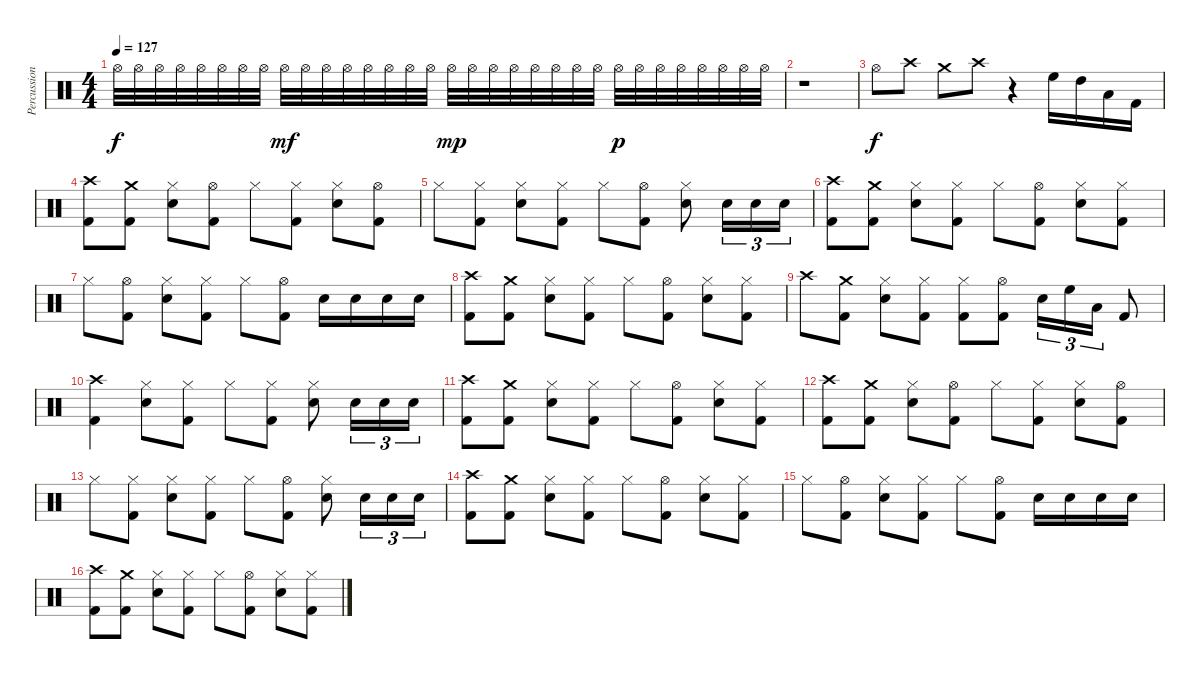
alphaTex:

\track ("Percussion" "Percussion") {instrument percussion}
\staff {score}
\articulation defaults
\ts (4 4)
\tempo 127
\clef neutral
\ks c "Hi-Hat (open)".32{dy f} "Hi-Hat (open)".32 "Hi-Hat (open)".32 "Hi-Hat (open)".32 "Hi-Hat (open)".32 "Hi-Hat (open)".32 "Hi-Hat (open)".32 "Hi-Hat (open)".32 "Hi-Hat (open)".32{dy mf} "Hi-Hat (open)".32 "Hi-Hat (open)".32 "Hi-Hat (open)".32 "Hi-Hat (open)".32 "Hi-Hat (open)".32 "Hi-Hat (open)".32 "Hi-Hat (open)".32 "Hi-Hat (open)".32{dy mp} "Hi-Hat (open)".32 "Hi-Hat (open)".32 "Hi-Hat (open)".32 "Hi-Hat (open)".32 "Hi-Hat (open)".32 "Hi-Hat (open)".32 "Hi-Hat (open)".32 "Hi-Hat (open)".32{dy p} "Hi-Hat (open)".32 "Hi-Hat (open)".32 "Hi-Hat (open)".32 "Hi-Hat (open)".32 "Hi-Hat (open)".32 "Hi-Hat (open)".32 "Hi-Hat (open)".32
|
r.1 |
"Hi-Hat (open)".8{dy f} "Crash high (hit)".8 "Crash medium (hit)".8 "Crash high (hit)".8 r.4 "High Floor Tom (hit)".16 "High Tom (hit)".16 "Low Tom (hit)".16 "Kick (hit) 2".16 |
("Kick (hit) 2" "Crash high (hit)").8 ("Kick (hit) 2" "Crash medium (hit)").8 ("Snare (hit) 2" "Hi-Hat (closed)").8 ("Kick (hit) 2" "Hi-Hat (open)").8 "Hi-Hat (closed)".8 ("Kick (hit) 2" "Hi-Hat (closed)").8 ("Snare (hit) 2" "Hi-Hat (closed)").8 ("Kick (hit) 2" "Hi-Hat (open)").8 |
"Hi-Hat (closed)".8 ("Kick (hit) 2" "Hi-Hat (closed)").8 ("Snare (hit) 2" "Hi-Hat (closed)").8 ("Kick (hit) 2" "Hi-Hat (closed)").8 "Hi-Hat (closed)".8 ("Kick (hit) 2" "Hi-Hat (open)").8 ("Snare (hit) 2" "Hi-Hat (closed)").8 "Snare (hit) 2".16{tu (3 2)} "Snare (hit) 2".16{tu (3 2)} "Snare (hit) 2".16{tu (3 2)} |
("Kick (hit) 2" "Crash high (hit)").8 ("Kick (hit) 2" "Crash medium (hit)").8 ("Snare (hit) 2" "Hi-Hat (closed)").8 ("Kick (hit) 2" "Hi-Hat (closed)").8 "Hi-Hat (closed)".8 ("Kick (hit) 2" "Hi-Hat (open)").8 ("Snare (hit) 2" "Hi-Hat (closed)").8 ("Kick (hit) 2" "Hi-Hat (closed)").8 |
"Hi-Hat (closed)".8 ("Kick (hit) 2" "Hi-Hat (open)").8 ("Snare (hit) 2" "Hi-Hat (closed)").8 ("Kick (hit) 2" "Hi-Hat (closed)").8 "Hi-Hat (closed)".8 ("Kick (hit) 2" "Hi-Hat (open)").8 "Snare (hit) 2".16 "Snare (hit) 2".16 "Snare (hit) 2".16 "Snare (hit) 2".16 |
("Kick (hit) 2" "Crash high (hit)").8 ("Kick (hit) 2" "Crash medium (hit)").8 ("Snare (hit) 2" "Hi-Hat (closed)").8 ("Kick (hit) 2" "Hi-Hat (closed)").8 "Hi-Hat (closed)".8 ("Kick (hit) 2" "Hi-Hat (open)").8 ("Snare (hit) 2" "Hi-Hat (closed)").8 ("Kick (hit) 2" "Hi-Hat (closed)").8 |
"Crash high (hit)".8 ("Kick (hit) 2" "Crash medium (hit)").8 ("Snare (hit) 2" "Hi-Hat (closed)").8 ("Kick (hit) 2" "Hi-Hat (closed)").8 ("Kick (hit) 2" "Hi-Hat (closed)").8 ("Kick (hit) 2" "Hi-Hat (open)").8 "Snare (hit) 2".16{tu (3 2)} "High Floor Tom (hit)".16{tu (3 2)} "Low Tom (hit)".16{tu (3 2)} "Kick (hit) 2".8 |
("Kick (hit) 2" "Crash high (hit)").4 ("Snare (hit) 2" "Hi-Hat (closed)").8 ("Kick (hit) 2" "Hi-Hat (closed)").8 "Hi-Hat (closed)".8 ("Kick (hit) 2" "Hi-Hat (closed)").8 ("Snare (hit) 2" "Hi-Hat (closed)").8 "Snare (hit) 2".16{tu (3 2)} "Snare (hit) 2".16{tu (3 2)} "Snare (hit) 2".16{tu (3 2)} |
("Kick (hit) 2" "Crash high (hit)").8 ("Kick (hit) 2" "Crash medium (hit)").8 ("Snare (hit) 2" "Hi-Hat (closed)").8 ("Kick (hit) 2" "Hi-Hat (closed)").8 "Hi-Hat (closed)".8 ("Kick (hit) 2" "Hi-Hat (open)").8 ("Snare (hit) 2" "Hi-Hat (closed)").8 ("Kick (hit) 2" "Hi-Hat (closed)").8 |
("Kick (hit) 2" "Crash high (hit)").8 ("Kick (hit) 2" "Crash medium (hit)").8 ("Snare (hit) 2" "Hi-Hat (closed)").8 ("Kick (hit) 2" "Hi-Hat (open)").8 "Hi-Hat (closed)".8 ("Kick (hit) 2" "Hi-Hat (closed)").8 ("Snare (hit) 2" "Hi-Hat (closed)").8 ("Kick (hit) 2" "Hi-Hat (open)").8 |
"Hi-Hat (closed)".8 ("Kick (hit) 2" "Hi-Hat (closed)").8 ("Snare (hit) 2" "Hi-Hat (closed)").8 ("Kick (hit) 2" "Hi-Hat (closed)").8 "Hi-Hat (closed)".8 ("Kick (hit) 2" "Hi-Hat (open)").8 ("Snare (hit) 2" "Hi-Hat (closed)").8 "Snare (hit) 2".16{tu (3 2)} "Snare (hit) 2".16{tu (3 2)} "Snare (hit) 2".16{tu (3 2)} |
("Kick (hit) 2" "Crash high (hit)").8 ("Kick (hit) 2" "Crash medium (hit)").8 ("Snare (hit) 2" "Hi-Hat (closed)").8 ("Kick (hit) 2" "Hi-Hat (closed)").8 "Hi-Hat (closed)".8 ("Kick (hit) 2" "Hi-Hat (open)").8 ("Snare (hit) 2" "Hi-Hat (closed)").8 ("Kick (hit) 2" "Hi-Hat (closed)").8 |
"Hi-Hat (closed)".8 ("Kick (hit) 2" "Hi-Hat (open)").8 ("Snare (hit) 2" "Hi-Hat (closed)").8 ("Kick (hit) 2" "Hi-Hat (closed)").8 "Hi-Hat (closed)".8 ("Kick (hit) 2" "Hi-Hat (open)").8 "Snare (hit) 2".16 "Snare (hit) 2".16 "Snare (hit) 2".16 "Snare (hit) 2".16 |
("Kick (hit) 2" "Crash high (hit)").8 ("Kick (hit) 2" "Crash medium (hit)").8 ("Snare (hit) 2" "Hi-Hat (closed)").8 ("Kick (hit) 2" "Hi-Hat (closed)").8 "Hi-Hat (closed)".8 ("Kick (hit) 2" "Hi-Hat (open)").8 ("Snare (hit) 2" "Hi-Hat (closed)").8 ("Kick (hit) 2" "Hi-Hat (closed)").8
